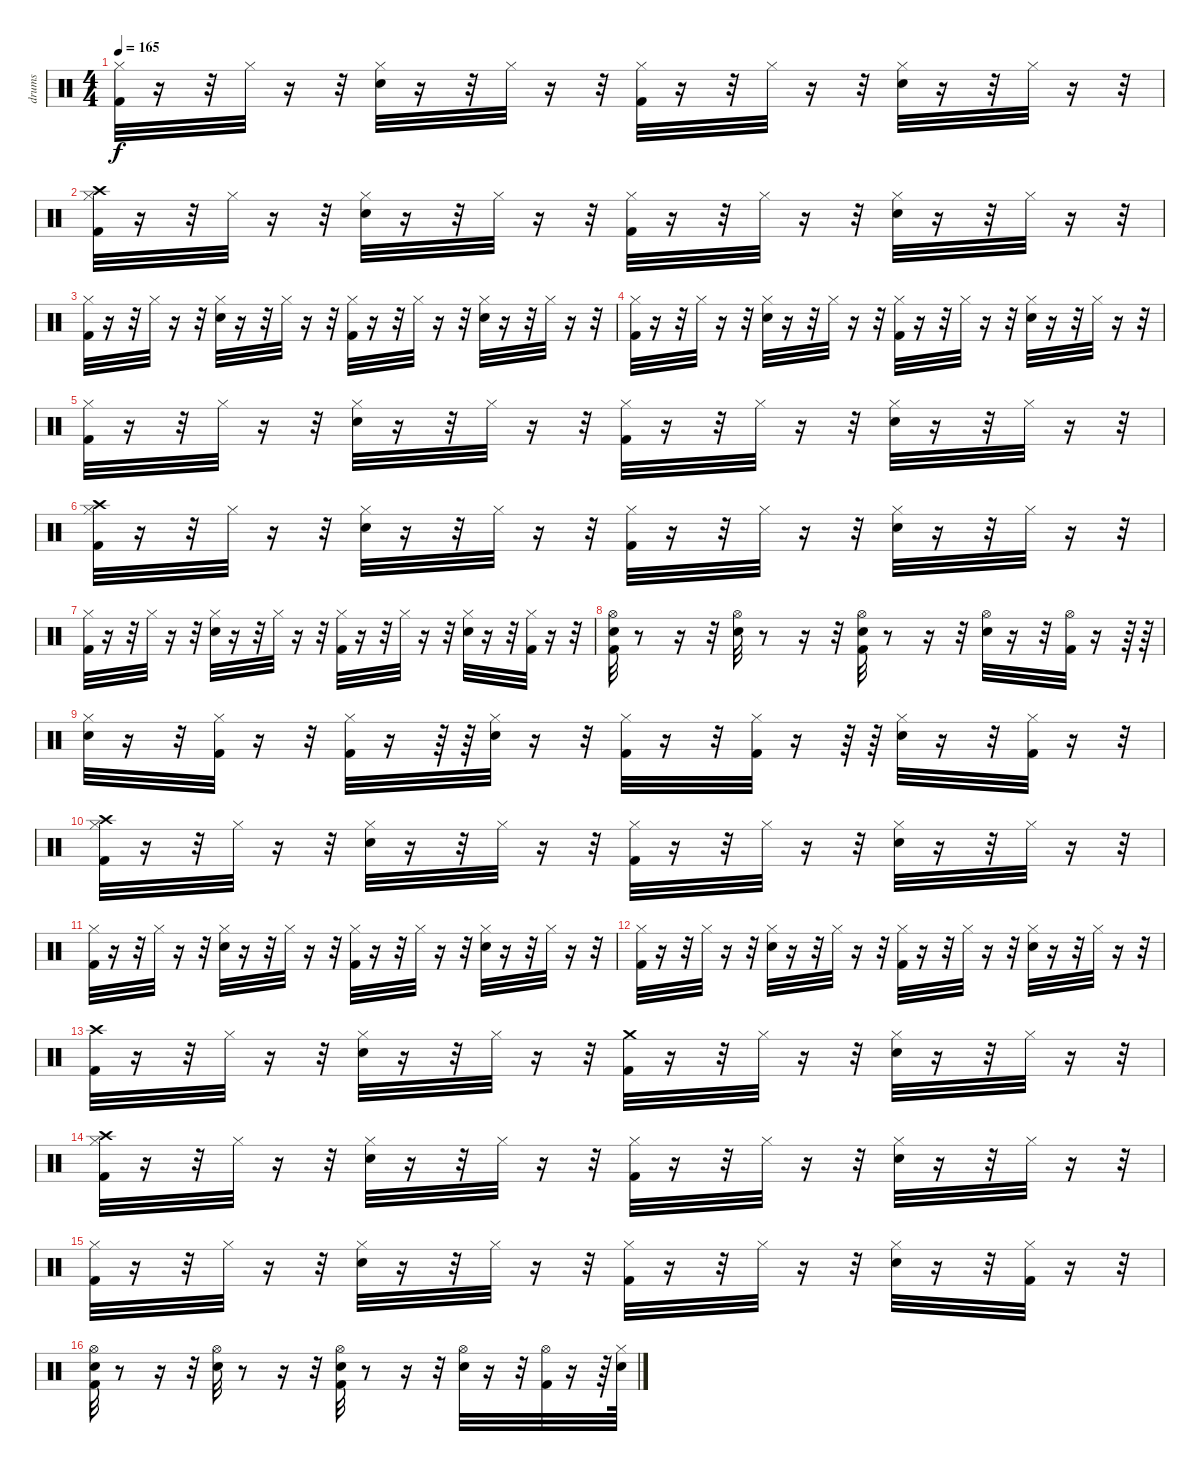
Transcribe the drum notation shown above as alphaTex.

\track ("drums" "drums") {instrument percussion}
\staff {score}
\articulation defaults
\ts (4 4)
\tempo 165
\clef neutral
\ks c
("Hi-Hat (closed)" "Kick (hit) 2").32{dy f} r.16 r.32 "Hi-Hat (closed)".32 r.16 r.32 ("Hi-Hat (closed)" "Electric Snare (hit)").32 r.16 r.32 "Hi-Hat (closed)".32 r.16 r.32 ("Hi-Hat (closed)" "Kick (hit) 2").32 r.16 r.32 "Hi-Hat (closed)".32 r.16 r.32 ("Hi-Hat (closed)" "Electric Snare (hit)").32 r.16 r.32 "Hi-Hat (closed)".32 r.16 r.32 |
("Crash high (hit)" "Hi-Hat (closed)" "Kick (hit) 2").32 r.16 r.32 "Hi-Hat (closed)".32 r.16 r.32 ("Hi-Hat (closed)" "Electric Snare (hit)").32 r.16 r.32 "Hi-Hat (closed)".32 r.16 r.32 ("Hi-Hat (closed)" "Kick (hit) 2").32 r.16 r.32 "Hi-Hat (closed)".32 r.16 r.32 ("Hi-Hat (closed)" "Electric Snare (hit)").32 r.16 r.32 "Hi-Hat (closed)".32 r.16 r.32 |
("Hi-Hat (closed)" "Kick (hit) 2").32 r.16 r.32 "Hi-Hat (closed)".32 r.16 r.32 ("Hi-Hat (closed)" "Electric Snare (hit)").32 r.16 r.32 "Hi-Hat (closed)".32 r.16 r.32 ("Hi-Hat (closed)" "Kick (hit) 2").32 r.16 r.32 "Hi-Hat (closed)".32 r.16 r.32 ("Hi-Hat (closed)" "Electric Snare (hit)").32 r.16 r.32 "Hi-Hat (closed)".32 r.16 r.32 |
("Hi-Hat (closed)" "Kick (hit) 2").32 r.16 r.32 "Hi-Hat (closed)".32 r.16 r.32 ("Hi-Hat (closed)" "Electric Snare (hit)").32 r.16 r.32 "Hi-Hat (closed)".32 r.16 r.32 ("Hi-Hat (closed)" "Kick (hit) 2").32 r.16 r.32 "Hi-Hat (closed)".32 r.16 r.32 ("Hi-Hat (closed)" "Electric Snare (hit)").32 r.16 r.32 "Hi-Hat (closed)".32 r.16 r.32 |
("Hi-Hat (closed)" "Kick (hit) 2").32 r.16 r.32 "Hi-Hat (closed)".32 r.16 r.32 ("Hi-Hat (closed)" "Electric Snare (hit)").32 r.16 r.32 "Hi-Hat (closed)".32 r.16 r.32 ("Hi-Hat (closed)" "Kick (hit) 2").32 r.16 r.32 "Hi-Hat (closed)".32 r.16 r.32 ("Hi-Hat (closed)" "Electric Snare (hit)").32 r.16 r.32 "Hi-Hat (closed)".32 r.16 r.32 |
("Crash high (hit)" "Hi-Hat (closed)" "Kick (hit) 2").32 r.16 r.32 "Hi-Hat (closed)".32 r.16 r.32 ("Hi-Hat (closed)" "Electric Snare (hit)").32 r.16 r.32 "Hi-Hat (closed)".32 r.16 r.32 ("Hi-Hat (closed)" "Kick (hit) 2").32 r.16 r.32 "Hi-Hat (closed)".32 r.16 r.32 ("Hi-Hat (closed)" "Electric Snare (hit)").32 r.16 r.32 "Hi-Hat (closed)".32 r.16 r.32 |
("Hi-Hat (closed)" "Kick (hit) 2").32 r.16 r.32 "Hi-Hat (closed)".32 r.16 r.32 ("Hi-Hat (closed)" "Electric Snare (hit)").32 r.16 r.32 "Hi-Hat (closed)".32 r.16 r.32 ("Hi-Hat (closed)" "Kick (hit) 2").32 r.16 r.32 "Hi-Hat (closed)".32 r.16 r.32 ("Hi-Hat (closed)" "Electric Snare (hit)").32 r.16 r.32 ("Kick (hit) 2" "Hi-Hat (closed)").32 r.16 r.32 |
("Electric Snare (hit)" "Hi-Hat (open)" "Kick (hit) 2").32 r.8 r.16 r.32 ("Electric Snare (hit)" "Hi-Hat (open)").32 r.8 r.16 r.32 ("Electric Snare (hit)" "Hi-Hat (open)" "Kick (hit) 2").32 r.8 r.16 r.32 ("Hi-Hat (open)" "Electric Snare (hit)").32 r.16 r.32 ("Kick (hit) 2" "Hi-Hat (open)").32 r.16 r.64 r.64 |
("Hi-Hat (closed)" "Electric Snare (hit)").32 r.16 r.32 ("Kick (hit) 2" "Hi-Hat (closed)").32 r.16 r.32 ("Hi-Hat (closed)" "Kick (hit) 2").32 r.16 r.64 r.64 ("Electric Snare (hit)" "Hi-Hat (closed)").32 r.16 r.32 ("Hi-Hat (closed)" "Kick (hit) 2").32 r.16 r.32 ("Hi-Hat (closed)" "Kick (hit) 2").32 r.16 r.64 r.64 ("Hi-Hat (closed)" "Electric Snare (hit)").32 r.16 r.32 ("Kick (hit) 2" "Hi-Hat (closed)").32 r.16 r.32 |
("Kick (hit) 2" "Hi-Hat (closed)" "Crash high (hit)").32 r.16 r.32 "Hi-Hat (closed)".32 r.16 r.32 ("Hi-Hat (closed)" "Electric Snare (hit)").32 r.16 r.32 "Hi-Hat (closed)".32 r.16 r.32 ("Hi-Hat (closed)" "Kick (hit) 2").32 r.16 r.32 "Hi-Hat (closed)".32 r.16 r.32 ("Hi-Hat (closed)" "Electric Snare (hit)").32 r.16 r.32 "Hi-Hat (closed)".32 r.16 r.32 |
("Hi-Hat (closed)" "Kick (hit) 2").32 r.16 r.32 "Hi-Hat (closed)".32 r.16 r.32 ("Hi-Hat (closed)" "Electric Snare (hit)").32 r.16 r.32 "Hi-Hat (closed)".32 r.16 r.32 ("Hi-Hat (closed)" "Kick (hit) 2").32 r.16 r.32 "Hi-Hat (closed)".32 r.16 r.32 ("Hi-Hat (closed)" "Electric Snare (hit)").32 r.16 r.32 "Hi-Hat (closed)".32 r.16 r.32 |
("Hi-Hat (closed)" "Kick (hit) 2").32 r.16 r.32 "Hi-Hat (closed)".32 r.16 r.32 ("Hi-Hat (closed)" "Electric Snare (hit)").32 r.16 r.32 "Hi-Hat (closed)".32 r.16 r.32 ("Hi-Hat (closed)" "Kick (hit) 2").32 r.16 r.32 "Hi-Hat (closed)".32 r.16 r.32 ("Hi-Hat (closed)" "Electric Snare (hit)").32 r.16 r.32 "Hi-Hat (closed)".32 r.16 r.32 |
("Crash high (hit)" "Kick (hit) 2").32 r.16 r.32 "Hi-Hat (closed)".32 r.16 r.32 ("Hi-Hat (closed)" "Electric Snare (hit)").32 r.16 r.32 "Hi-Hat (closed)".32 r.16 r.32 ("Crash medium (hit)" "Kick (hit) 2").32 r.16 r.32 "Hi-Hat (closed)".32 r.16 r.32 ("Hi-Hat (closed)" "Electric Snare (hit)").32 r.16 r.32 "Hi-Hat (closed)".32 r.16 r.32 |
("Crash high (hit)" "Hi-Hat (closed)" "Kick (hit) 2").32 r.16 r.32 "Hi-Hat (closed)".32 r.16 r.32 ("Hi-Hat (closed)" "Electric Snare (hit)").32 r.16 r.32 "Hi-Hat (closed)".32 r.16 r.32 ("Hi-Hat (closed)" "Kick (hit) 2").32 r.16 r.32 "Hi-Hat (closed)".32 r.16 r.32 ("Hi-Hat (closed)" "Electric Snare (hit)").32 r.16 r.32 "Hi-Hat (closed)".32 r.16 r.32 |
("Hi-Hat (closed)" "Kick (hit) 2").32 r.16 r.32 "Hi-Hat (closed)".32 r.16 r.32 ("Hi-Hat (closed)" "Electric Snare (hit)").32 r.16 r.32 "Hi-Hat (closed)".32 r.16 r.32 ("Hi-Hat (closed)" "Kick (hit) 2").32 r.16 r.32 "Hi-Hat (closed)".32 r.16 r.32 ("Hi-Hat (closed)" "Electric Snare (hit)").32 r.16 r.32 ("Kick (hit) 2" "Hi-Hat (closed)").32 r.16 r.32 |
("Electric Snare (hit)" "Hi-Hat (open)" "Kick (hit) 2").32 r.8 r.16 r.32 ("Electric Snare (hit)" "Hi-Hat (open)").32 r.8 r.16 r.32 ("Electric Snare (hit)" "Hi-Hat (open)" "Kick (hit) 2").32 r.8 r.16 r.32 ("Hi-Hat (open)" "Electric Snare (hit)").32 r.16 r.32 ("Kick (hit) 2" "Hi-Hat (open)").32 r.16 r.64 ("Hi-Hat (closed)" "Electric Snare (hit)").64
